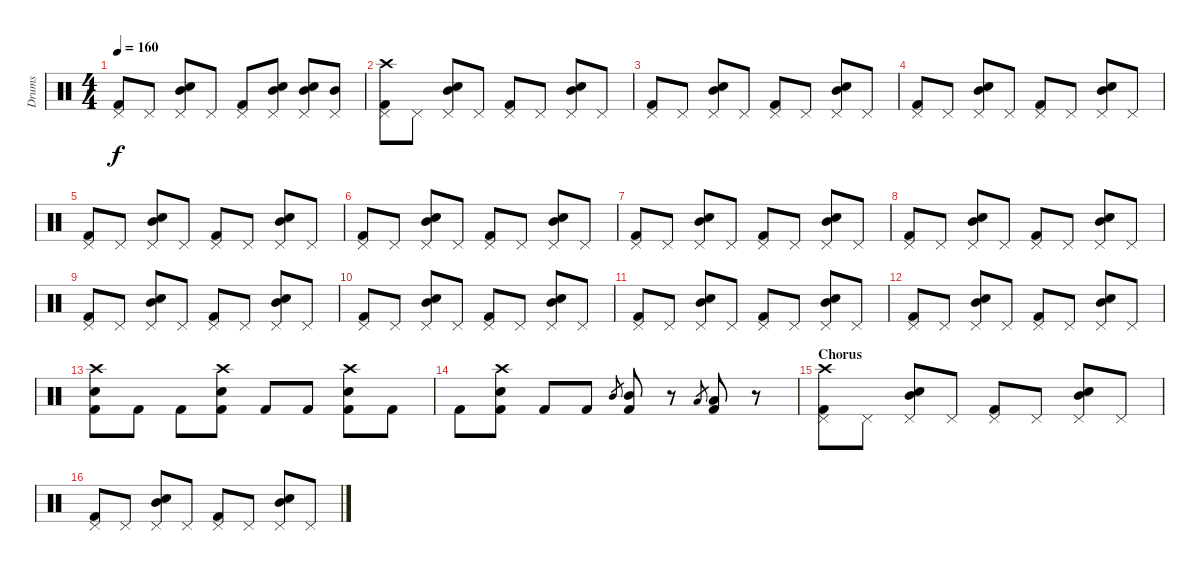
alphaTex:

\track ("Drums" "Drums") {instrument percussion}
\staff {score}
\articulation defaults
\ts (4 4)
\tempo 160
\clef neutral
\ks c
("Kick (hit) 2" "Pedal Hi-Hat (hit)").8{dy f} "Pedal Hi-Hat (hit)".8 ("Snare (hit) 2" "Pedal Hi-Hat (hit)" "Mid Tom (hit)").8 "Pedal Hi-Hat (hit)".8 ("Kick (hit) 2" "Pedal Hi-Hat (hit)").8 ("Snare (hit) 2" "Pedal Hi-Hat (hit)" "Mid Tom (hit)").8 ("Snare (hit) 2" "Pedal Hi-Hat (hit)" "Mid Tom (hit)").8 ("Pedal Hi-Hat (hit)" "Mid Tom (hit)").8 |
("Kick (hit) 2" "Pedal Hi-Hat (hit)" "Crash high (hit)").8 "Pedal Hi-Hat (hit)".8 ("Snare (hit) 2" "Pedal Hi-Hat (hit)" "Mid Tom (hit)").8 "Pedal Hi-Hat (hit)".8 ("Kick (hit) 2" "Pedal Hi-Hat (hit)").8 "Pedal Hi-Hat (hit)".8 ("Snare (hit) 2" "Pedal Hi-Hat (hit)" "Mid Tom (hit)").8 "Pedal Hi-Hat (hit)".8 |
("Kick (hit) 2" "Pedal Hi-Hat (hit)").8 "Pedal Hi-Hat (hit)".8 ("Snare (hit) 2" "Pedal Hi-Hat (hit)" "Mid Tom (hit)").8 "Pedal Hi-Hat (hit)".8 ("Kick (hit) 2" "Pedal Hi-Hat (hit)").8 "Pedal Hi-Hat (hit)".8 ("Snare (hit) 2" "Pedal Hi-Hat (hit)" "Mid Tom (hit)").8 "Pedal Hi-Hat (hit)".8 |
("Kick (hit) 2" "Pedal Hi-Hat (hit)").8 "Pedal Hi-Hat (hit)".8 ("Snare (hit) 2" "Pedal Hi-Hat (hit)" "Mid Tom (hit)").8 "Pedal Hi-Hat (hit)".8 ("Kick (hit) 2" "Pedal Hi-Hat (hit)").8 "Pedal Hi-Hat (hit)".8 ("Snare (hit) 2" "Pedal Hi-Hat (hit)" "Mid Tom (hit)").8 "Pedal Hi-Hat (hit)".8 |
("Kick (hit) 2" "Pedal Hi-Hat (hit)").8 "Pedal Hi-Hat (hit)".8 ("Snare (hit) 2" "Pedal Hi-Hat (hit)" "Mid Tom (hit)").8 "Pedal Hi-Hat (hit)".8 ("Kick (hit) 2" "Pedal Hi-Hat (hit)").8 "Pedal Hi-Hat (hit)".8 ("Snare (hit) 2" "Pedal Hi-Hat (hit)" "Mid Tom (hit)").8 "Pedal Hi-Hat (hit)".8 |
("Kick (hit) 2" "Pedal Hi-Hat (hit)").8 "Pedal Hi-Hat (hit)".8 ("Snare (hit) 2" "Pedal Hi-Hat (hit)" "Mid Tom (hit)").8 "Pedal Hi-Hat (hit)".8 ("Kick (hit) 2" "Pedal Hi-Hat (hit)").8 "Pedal Hi-Hat (hit)".8 ("Snare (hit) 2" "Pedal Hi-Hat (hit)" "Mid Tom (hit)").8 "Pedal Hi-Hat (hit)".8 |
("Kick (hit) 2" "Pedal Hi-Hat (hit)").8 "Pedal Hi-Hat (hit)".8 ("Snare (hit) 2" "Pedal Hi-Hat (hit)" "Mid Tom (hit)").8 "Pedal Hi-Hat (hit)".8 ("Kick (hit) 2" "Pedal Hi-Hat (hit)").8 "Pedal Hi-Hat (hit)".8 ("Snare (hit) 2" "Pedal Hi-Hat (hit)" "Mid Tom (hit)").8 "Pedal Hi-Hat (hit)".8 |
("Kick (hit) 2" "Pedal Hi-Hat (hit)").8 "Pedal Hi-Hat (hit)".8 ("Snare (hit) 2" "Pedal Hi-Hat (hit)" "Mid Tom (hit)").8 "Pedal Hi-Hat (hit)".8 ("Kick (hit) 2" "Pedal Hi-Hat (hit)").8 "Pedal Hi-Hat (hit)".8 ("Snare (hit) 2" "Pedal Hi-Hat (hit)" "Mid Tom (hit)").8 "Pedal Hi-Hat (hit)".8 |
("Kick (hit) 2" "Pedal Hi-Hat (hit)").8 "Pedal Hi-Hat (hit)".8 ("Snare (hit) 2" "Pedal Hi-Hat (hit)" "Mid Tom (hit)").8 "Pedal Hi-Hat (hit)".8 ("Kick (hit) 2" "Pedal Hi-Hat (hit)").8 "Pedal Hi-Hat (hit)".8 ("Snare (hit) 2" "Pedal Hi-Hat (hit)" "Mid Tom (hit)").8 "Pedal Hi-Hat (hit)".8 |
("Kick (hit) 2" "Pedal Hi-Hat (hit)").8 "Pedal Hi-Hat (hit)".8 ("Snare (hit) 2" "Pedal Hi-Hat (hit)" "Mid Tom (hit)").8 "Pedal Hi-Hat (hit)".8 ("Kick (hit) 2" "Pedal Hi-Hat (hit)").8 "Pedal Hi-Hat (hit)".8 ("Snare (hit) 2" "Pedal Hi-Hat (hit)" "Mid Tom (hit)").8 "Pedal Hi-Hat (hit)".8 |
("Kick (hit) 2" "Pedal Hi-Hat (hit)").8 "Pedal Hi-Hat (hit)".8 ("Snare (hit) 2" "Pedal Hi-Hat (hit)" "Mid Tom (hit)").8 "Pedal Hi-Hat (hit)".8 ("Kick (hit) 2" "Pedal Hi-Hat (hit)").8 "Pedal Hi-Hat (hit)".8 ("Snare (hit) 2" "Pedal Hi-Hat (hit)" "Mid Tom (hit)").8 "Pedal Hi-Hat (hit)".8 |
("Kick (hit) 2" "Pedal Hi-Hat (hit)").8 "Pedal Hi-Hat (hit)".8 ("Snare (hit) 2" "Pedal Hi-Hat (hit)" "Mid Tom (hit)").8 "Pedal Hi-Hat (hit)".8 ("Kick (hit) 2" "Pedal Hi-Hat (hit)").8 "Pedal Hi-Hat (hit)".8 ("Snare (hit) 2" "Pedal Hi-Hat (hit)" "Mid Tom (hit)").8 "Pedal Hi-Hat (hit)".8 |
("Kick (hit) 2" "Crash high (hit)" "Snare (hit) 2").8 "Kick (hit) 2".8 "Kick (hit) 2".8 ("Kick (hit) 2" "Crash high (hit)" "Snare (hit) 2").8 "Kick (hit) 2".8 "Kick (hit) 2".8 ("Kick (hit) 2" "Crash high (hit)" "Snare (hit) 2").8 "Kick (hit) 2".8 |
"Kick (hit) 2".8 ("Kick (hit) 2" "Crash high (hit)" "Snare (hit) 2").8 "Kick (hit) 2".8 "Kick (hit) 2".8 "Mid Tom (hit)".8{gr} ("Kick (hit) 2" "Mid Tom (hit)").8 r.8 "Low Tom (hit)".8{gr} ("Kick (hit) 2" "Low Tom (hit)").8 r.8 |
\section ("" "Chorus")
("Kick (hit) 2" "Pedal Hi-Hat (hit)" "Crash high (hit)").8 "Pedal Hi-Hat (hit)".8 ("Snare (hit) 2" "Pedal Hi-Hat (hit)" "Mid Tom (hit)").8 "Pedal Hi-Hat (hit)".8 ("Kick (hit) 2" "Pedal Hi-Hat (hit)").8 "Pedal Hi-Hat (hit)".8 ("Snare (hit) 2" "Pedal Hi-Hat (hit)" "Mid Tom (hit)").8 "Pedal Hi-Hat (hit)".8 |
("Kick (hit) 2" "Pedal Hi-Hat (hit)").8 "Pedal Hi-Hat (hit)".8 ("Snare (hit) 2" "Pedal Hi-Hat (hit)" "Mid Tom (hit)").8 "Pedal Hi-Hat (hit)".8 ("Kick (hit) 2" "Pedal Hi-Hat (hit)").8 "Pedal Hi-Hat (hit)".8 ("Snare (hit) 2" "Pedal Hi-Hat (hit)" "Mid Tom (hit)").8 "Pedal Hi-Hat (hit)".8
